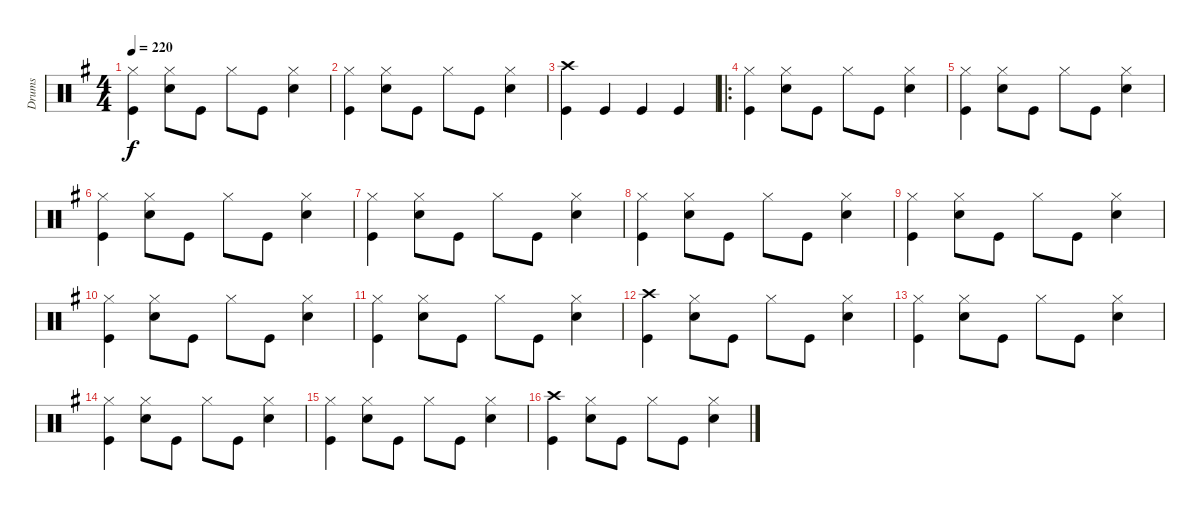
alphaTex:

\track ("Drums" "Drums") {instrument percussion}
\staff {score}
\articulation defaults
\ts (4 4)
\tempo 220
\clef neutral
\ks g
("Hi-Hat (closed)" "Kick (hit)").4{dy f} ("Hi-Hat (closed)" "Snare (hit) 2").8 "Kick (hit)".8 "Hi-Hat (closed)".8 "Kick (hit)".8 ("Hi-Hat (closed)" "Snare (hit) 2").4 |
("Hi-Hat (closed)" "Kick (hit)").4 ("Hi-Hat (closed)" "Snare (hit) 2").8 "Kick (hit)".8 "Hi-Hat (closed)".8 "Kick (hit)".8 ("Hi-Hat (closed)" "Snare (hit) 2").4 |
("Crash high (hit)" "Kick (hit)").4 "Kick (hit)".4 "Kick (hit)".4 "Kick (hit)".4 |
\ro
("Hi-Hat (closed)" "Kick (hit)").4 ("Hi-Hat (closed)" "Snare (hit) 2").8 "Kick (hit)".8 "Hi-Hat (closed)".8 "Kick (hit)".8 ("Hi-Hat (closed)" "Snare (hit) 2").4 |
("Hi-Hat (closed)" "Kick (hit)").4 ("Hi-Hat (closed)" "Snare (hit) 2").8 "Kick (hit)".8 "Hi-Hat (closed)".8 "Kick (hit)".8 ("Hi-Hat (closed)" "Snare (hit) 2").4 |
("Hi-Hat (closed)" "Kick (hit)").4 ("Hi-Hat (closed)" "Snare (hit) 2").8 "Kick (hit)".8 "Hi-Hat (closed)".8 "Kick (hit)".8 ("Hi-Hat (closed)" "Snare (hit) 2").4 |
("Hi-Hat (closed)" "Kick (hit)").4 ("Hi-Hat (closed)" "Snare (hit) 2").8 "Kick (hit)".8 "Hi-Hat (closed)".8 "Kick (hit)".8 ("Hi-Hat (closed)" "Snare (hit) 2").4 |
("Hi-Hat (closed)" "Kick (hit)").4 ("Hi-Hat (closed)" "Snare (hit) 2").8 "Kick (hit)".8 "Hi-Hat (closed)".8 "Kick (hit)".8 ("Hi-Hat (closed)" "Snare (hit) 2").4 |
("Hi-Hat (closed)" "Kick (hit)").4 ("Hi-Hat (closed)" "Snare (hit) 2").8 "Kick (hit)".8 "Hi-Hat (closed)".8 "Kick (hit)".8 ("Hi-Hat (closed)" "Snare (hit) 2").4 |
("Hi-Hat (closed)" "Kick (hit)").4 ("Hi-Hat (closed)" "Snare (hit) 2").8 "Kick (hit)".8 "Hi-Hat (closed)".8 "Kick (hit)".8 ("Hi-Hat (closed)" "Snare (hit) 2").4 |
("Hi-Hat (closed)" "Kick (hit)").4 ("Hi-Hat (closed)" "Snare (hit) 2").8 "Kick (hit)".8 "Hi-Hat (closed)".8 "Kick (hit)".8 ("Hi-Hat (closed)" "Snare (hit) 2").4 |
("Crash high (hit)" "Kick (hit)").4 ("Hi-Hat (closed)" "Snare (hit) 2").8 "Kick (hit)".8 "Hi-Hat (closed)".8 "Kick (hit)".8 ("Hi-Hat (closed)" "Snare (hit) 2").4 |
("Hi-Hat (closed)" "Kick (hit)").4 ("Hi-Hat (closed)" "Snare (hit) 2").8 "Kick (hit)".8 "Hi-Hat (closed)".8 "Kick (hit)".8 ("Hi-Hat (closed)" "Snare (hit) 2").4 |
("Hi-Hat (closed)" "Kick (hit)").4 ("Hi-Hat (closed)" "Snare (hit) 2").8 "Kick (hit)".8 "Hi-Hat (closed)".8 "Kick (hit)".8 ("Hi-Hat (closed)" "Snare (hit) 2").4 |
("Hi-Hat (closed)" "Kick (hit)").4 ("Hi-Hat (closed)" "Snare (hit) 2").8 "Kick (hit)".8 "Hi-Hat (closed)".8 "Kick (hit)".8 ("Hi-Hat (closed)" "Snare (hit) 2").4 |
("Crash high (hit)" "Kick (hit)").4 ("Hi-Hat (closed)" "Snare (hit) 2").8 "Kick (hit)".8 "Hi-Hat (closed)".8 "Kick (hit)".8 ("Hi-Hat (closed)" "Snare (hit) 2").4
